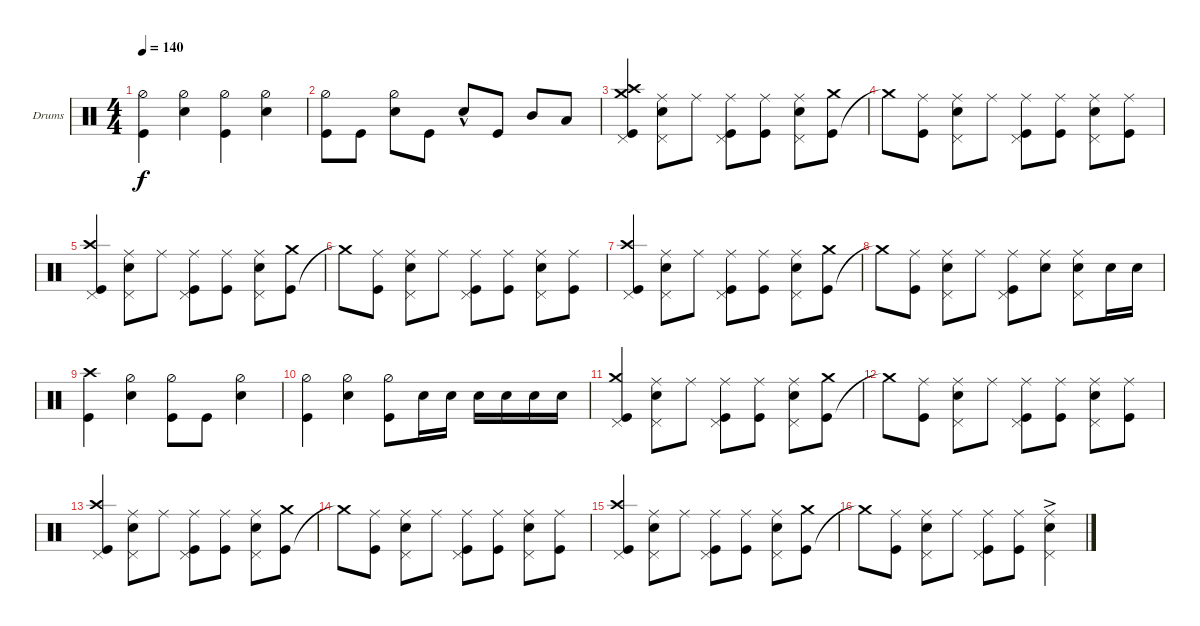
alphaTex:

\defaultSystemsLayout 4
\bracketExtendMode groupsimilarinstruments
\firstSystemTrackNameOrientation horizontal
\otherSystemsTrackNameOrientation horizontal
\track ("Steve" "Drums") {instrument percussion}
\staff {score}
\articulation defaults
\ts (4 4)
\tempo 140
\clef neutral
\ks c
("Kick (hit)" "Hi-Hat (half)").4{dy f} ("Snare (hit) 2" "Hi-Hat (half)").4 ("Kick (hit)" "Hi-Hat (half)").4 ("Snare (hit) 2" "Hi-Hat (half)").4 |
("Kick (hit)" "Hi-Hat (half)").8 "Kick (hit)".8 ("Snare (hit) 2" "Hi-Hat (half)").8 "Kick (hit)".8 "Snare (hit) 2"{hac}.8 "Kick (hit)".8 "Mid Tom (hit)".8 "Low Tom (hit)".8 |
("Kick (hit)" "Crash high (hit)" "Crash medium (hit)" "Pedal Hi-Hat (hit)").4 ("Snare (hit) 2" "Ride (middle)" "Pedal Hi-Hat (hit)").8 "Ride (middle)".8 ("Kick (hit)" "Ride (middle)" "Pedal Hi-Hat (hit)").8 ("Kick (hit)" "Ride (middle)").8 ("Snare (hit) 2" "Ride (middle)" "Pedal Hi-Hat (hit)").8 ("Kick (hit)" "Crash medium (hit)").8 |
"Crash medium (hit)"{t}.8 ("Kick (hit)" "Ride (middle)").8 ("Snare (hit) 2" "Ride (middle)" "Pedal Hi-Hat (hit)").8 "Ride (middle)".8 ("Kick (hit)" "Ride (middle)" "Pedal Hi-Hat (hit)").8 ("Kick (hit)" "Ride (middle)").8 ("Snare (hit) 2" "Ride (middle)" "Pedal Hi-Hat (hit)").8 ("Ride (middle)" "Kick (hit)").8 |
("Kick (hit)" "Crash high (hit)" "Pedal Hi-Hat (hit)").4 ("Snare (hit) 2" "Ride (middle)" "Pedal Hi-Hat (hit)").8 "Ride (middle)".8 ("Kick (hit)" "Ride (middle)" "Pedal Hi-Hat (hit)").8 ("Kick (hit)" "Ride (middle)").8 ("Snare (hit) 2" "Ride (middle)" "Pedal Hi-Hat (hit)").8 ("Kick (hit)" "Crash medium (hit)").8 |
"Crash medium (hit)"{t}.8 ("Kick (hit)" "Ride (middle)").8 ("Snare (hit) 2" "Ride (middle)" "Pedal Hi-Hat (hit)").8 "Ride (middle)".8 ("Kick (hit)" "Ride (middle)" "Pedal Hi-Hat (hit)").8 ("Kick (hit)" "Ride (middle)").8 ("Snare (hit) 2" "Ride (middle)" "Pedal Hi-Hat (hit)").8 ("Ride (middle)" "Kick (hit)").8 |
("Kick (hit)" "Crash high (hit)" "Pedal Hi-Hat (hit)").4 ("Snare (hit) 2" "Ride (middle)" "Pedal Hi-Hat (hit)").8 "Ride (middle)".8 ("Kick (hit)" "Ride (middle)" "Pedal Hi-Hat (hit)").8 ("Kick (hit)" "Ride (middle)").8 ("Snare (hit) 2" "Ride (middle)" "Pedal Hi-Hat (hit)").8 ("Kick (hit)" "Crash medium (hit)").8 |
"Crash medium (hit)"{t}.8 ("Kick (hit)" "Ride (middle)").8 ("Snare (hit) 2" "Ride (middle)" "Pedal Hi-Hat (hit)").8 "Ride (middle)".8 ("Kick (hit)" "Ride (middle)" "Pedal Hi-Hat (hit)").8 ("Ride (middle)" "Snare (hit) 2").8 ("Snare (hit) 2" "Ride (middle)" "Pedal Hi-Hat (hit)").8 "Snare (hit) 2".16 "Snare (hit) 2".16 |
("Crash high (hit)" "Kick (hit)").4 ("Snare (hit) 2" "Hi-Hat (half)").4 ("Kick (hit)" "Hi-Hat (half)").8 "Kick (hit)".8 ("Snare (hit) 2" "Hi-Hat (half)").4 |
("Kick (hit)" "Hi-Hat (half)").4 ("Snare (hit) 2" "Hi-Hat (half)").4 ("Kick (hit)" "Hi-Hat (half)").8 "Snare (hit) 2".16 "Snare (hit) 2".16 "Snare (hit) 2".16 "Snare (hit) 2".16 "Snare (hit) 2".16 "Snare (hit) 2".16 |
("Kick (hit)" "Crash medium (hit)" "Pedal Hi-Hat (hit)").4 ("Snare (hit) 2" "Ride (middle)" "Pedal Hi-Hat (hit)").8 "Ride (middle)".8 ("Kick (hit)" "Ride (middle)" "Pedal Hi-Hat (hit)").8 ("Kick (hit)" "Ride (middle)").8 ("Snare (hit) 2" "Ride (middle)" "Pedal Hi-Hat (hit)").8 ("Kick (hit)" "Crash medium (hit)").8 |
"Crash medium (hit)"{t}.8 ("Kick (hit)" "Ride (middle)").8 ("Snare (hit) 2" "Ride (middle)" "Pedal Hi-Hat (hit)").8 "Ride (middle)".8 ("Kick (hit)" "Ride (middle)" "Pedal Hi-Hat (hit)").8 ("Kick (hit)" "Ride (middle)").8 ("Snare (hit) 2" "Ride (middle)" "Pedal Hi-Hat (hit)").8 ("Ride (middle)" "Kick (hit)").8 |
("Kick (hit)" "Crash high (hit)" "Pedal Hi-Hat (hit)").4 ("Snare (hit) 2" "Ride (middle)" "Pedal Hi-Hat (hit)").8 "Ride (middle)".8 ("Kick (hit)" "Ride (middle)" "Pedal Hi-Hat (hit)").8 ("Kick (hit)" "Ride (middle)").8 ("Snare (hit) 2" "Ride (middle)" "Pedal Hi-Hat (hit)").8 ("Kick (hit)" "Crash medium (hit)").8 |
"Crash medium (hit)"{t}.8 ("Kick (hit)" "Ride (middle)").8 ("Snare (hit) 2" "Ride (middle)" "Pedal Hi-Hat (hit)").8 "Ride (middle)".8 ("Kick (hit)" "Ride (middle)" "Pedal Hi-Hat (hit)").8 ("Kick (hit)" "Ride (middle)").8 ("Snare (hit) 2" "Ride (middle)" "Pedal Hi-Hat (hit)").8 ("Ride (middle)" "Kick (hit)").8 |
("Kick (hit)" "Crash high (hit)" "Pedal Hi-Hat (hit)").4 ("Snare (hit) 2" "Ride (middle)" "Pedal Hi-Hat (hit)").8 "Ride (middle)".8 ("Kick (hit)" "Ride (middle)" "Pedal Hi-Hat (hit)").8 ("Kick (hit)" "Ride (middle)").8 ("Snare (hit) 2" "Ride (middle)" "Pedal Hi-Hat (hit)").8 ("Kick (hit)" "Crash medium (hit)").8 |
"Crash medium (hit)"{t}.8 ("Kick (hit)" "Ride (middle)").8 ("Snare (hit) 2" "Ride (middle)" "Pedal Hi-Hat (hit)").8 "Ride (middle)".8 ("Kick (hit)" "Ride (middle)" "Pedal Hi-Hat (hit)").8 ("Kick (hit)" "Ride (middle)").8 ("Snare (hit) 2"{ac} "Pedal Hi-Hat (hit)" "Ride (middle)").4
